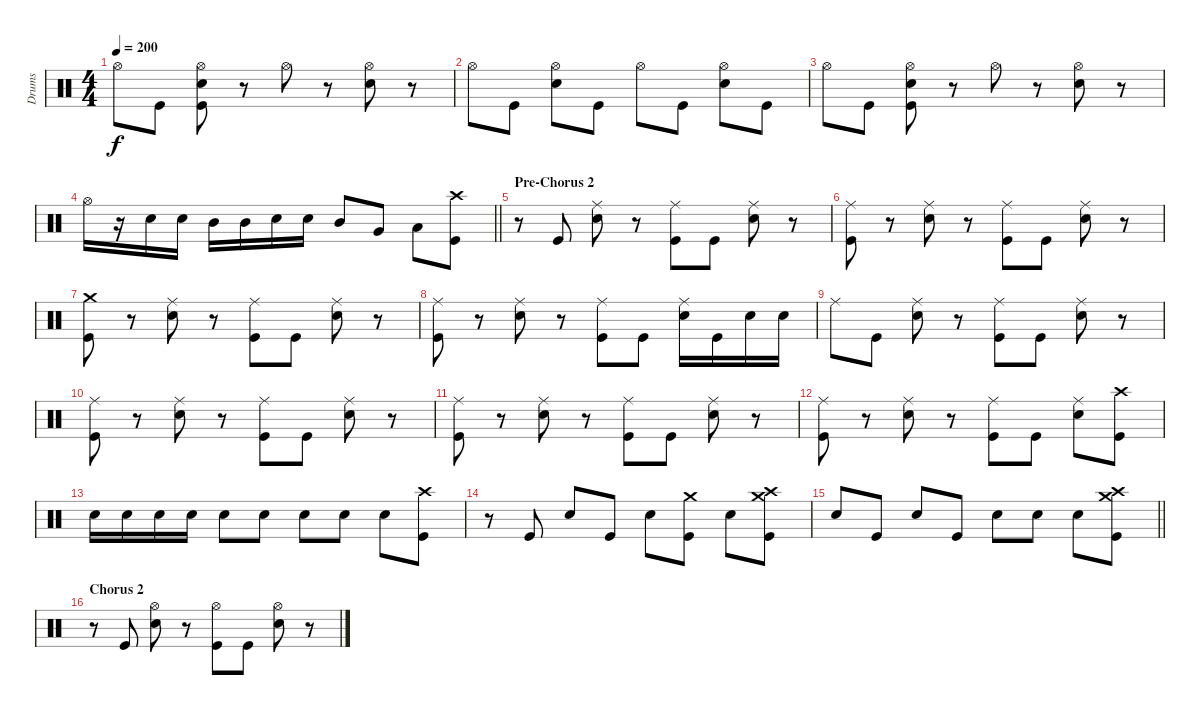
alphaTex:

\track ("Drums" "Drums") {instrument percussion}
\staff {score}
\articulation defaults
\ts (4 4)
\tempo 200
\clef neutral
\ks c "Hi-Hat (open)".8{dy f} "Kick (hit)".8
("Hi-Hat (open)" "Electric Snare (hit)" "Kick (hit)").8 r.8 "Hi-Hat (open)".8 r.8 ("Hi-Hat (open)" "Electric Snare (hit)").8 r.8 |
"Hi-Hat (open)".8 "Kick (hit)".8 ("Hi-Hat (open)" "Electric Snare (hit)").8 "Kick (hit)".8 "Hi-Hat (open)".8 "Kick (hit)".8 ("Hi-Hat (open)" "Electric Snare (hit)").8 "Kick (hit)".8 |
"Hi-Hat (open)".8 "Kick (hit)".8 ("Hi-Hat (open)" "Electric Snare (hit)" "Kick (hit)").8 r.8 "Hi-Hat (open)".8 r.8 ("Hi-Hat (open)" "Electric Snare (hit)").8 r.8 |
\barLineRight lightlight "Hi-Hat (open)".16
r.16 "Electric Snare (hit)".16 "Electric Snare (hit)".16 "Mid Tom (hit)".16 "Mid Tom (hit)".16 "Electric Snare (hit)".16 "Electric Snare (hit)".16 "Mid Tom (hit)".8 "Very Low Tom (hit)".8 "Low Floor Tom (hit)".8 ("Crash high (hit)" "Kick (hit)").8 |
\section ("" "Pre-Chorus 2")
r.8 "Kick (hit)".8 ("Ride (middle)" "Electric Snare (hit)").8 r.8 ("Ride (middle)" "Kick (hit)").8 "Kick (hit)".8 ("Ride (middle)" "Electric Snare (hit)").8 r.8 |
("Ride (middle)" "Kick (hit)").8 r.8 ("Ride (middle)" "Electric Snare (hit)").8 r.8 ("Ride (middle)" "Kick (hit)").8 "Kick (hit)".8 ("Ride (middle)" "Electric Snare (hit)").8 r.8 |
("Crash medium (hit)" "Kick (hit)").8 r.8 ("Ride (middle)" "Electric Snare (hit)").8 r.8 ("Ride (middle)" "Kick (hit)").8 "Kick (hit)".8 ("Ride (middle)" "Electric Snare (hit)").8 r.8 |
("Ride (middle)" "Kick (hit)").8 r.8 ("Ride (middle)" "Electric Snare (hit)").8 r.8 ("Ride (middle)" "Kick (hit)").8 "Kick (hit)".8 ("Ride (middle)" "Electric Snare (hit)").16 "Kick (hit)".16 "Electric Snare (hit)".16 "Electric Snare (hit)".16 |
"Ride (middle)".8 "Kick (hit)".8 ("Ride (middle)" "Electric Snare (hit)").8 r.8 ("Ride (middle)" "Kick (hit)").8 "Kick (hit)".8 ("Ride (middle)" "Electric Snare (hit)").8 r.8 |
("Ride (middle)" "Kick (hit)").8 r.8 ("Ride (middle)" "Electric Snare (hit)").8 r.8 ("Ride (middle)" "Kick (hit)").8 "Kick (hit)".8 ("Ride (middle)" "Electric Snare (hit)").8 r.8 |
("Ride (middle)" "Kick (hit)").8 r.8 ("Ride (middle)" "Electric Snare (hit)").8 r.8 ("Ride (middle)" "Kick (hit)").8 "Kick (hit)".8 ("Ride (middle)" "Electric Snare (hit)").8 r.8 |
("Ride (middle)" "Kick (hit)").8 r.8 ("Ride (middle)" "Electric Snare (hit)").8 r.8 ("Ride (middle)" "Kick (hit)").8 "Kick (hit)".8 ("Ride (middle)" "Electric Snare (hit)").8 ("Crash high (hit)" "Kick (hit)").8 |
"Electric Snare (hit)".16 "Electric Snare (hit)".16 "Electric Snare (hit)".16 "Electric Snare (hit)".16 "Electric Snare (hit)".8 "Electric Snare (hit)".8 "Electric Snare (hit)".8 "Electric Snare (hit)".8 "Electric Snare (hit)".8 ("Crash high (hit)" "Kick (hit)").8 |
r.8 "Kick (hit)".8 "Electric Snare (hit)".8 "Kick (hit)".8 "Electric Snare (hit)".8 ("Crash medium (hit)" "Kick (hit)").8 "Electric Snare (hit)".8 ("Crash high (hit)" "Crash medium (hit)" "Kick (hit)").8 |
\barLineRight lightlight "Electric Snare (hit)".8 "Kick (hit)".8 "Electric Snare (hit)".8 "Kick (hit)".8 "Electric Snare (hit)".8 "Electric Snare (hit)".8 "Electric Snare (hit)".8
("Crash high (hit)" "Crash medium (hit)" "Kick (hit)").8 |
\section ("" "Chorus 2")
r.8 "Kick (hit)".8 ("Hi-Hat (open)" "Electric Snare (hit)").8 r.8 ("Hi-Hat (open)" "Kick (hit)").8 "Kick (hit)".8 ("Hi-Hat (open)" "Electric Snare (hit)").8 r.8
